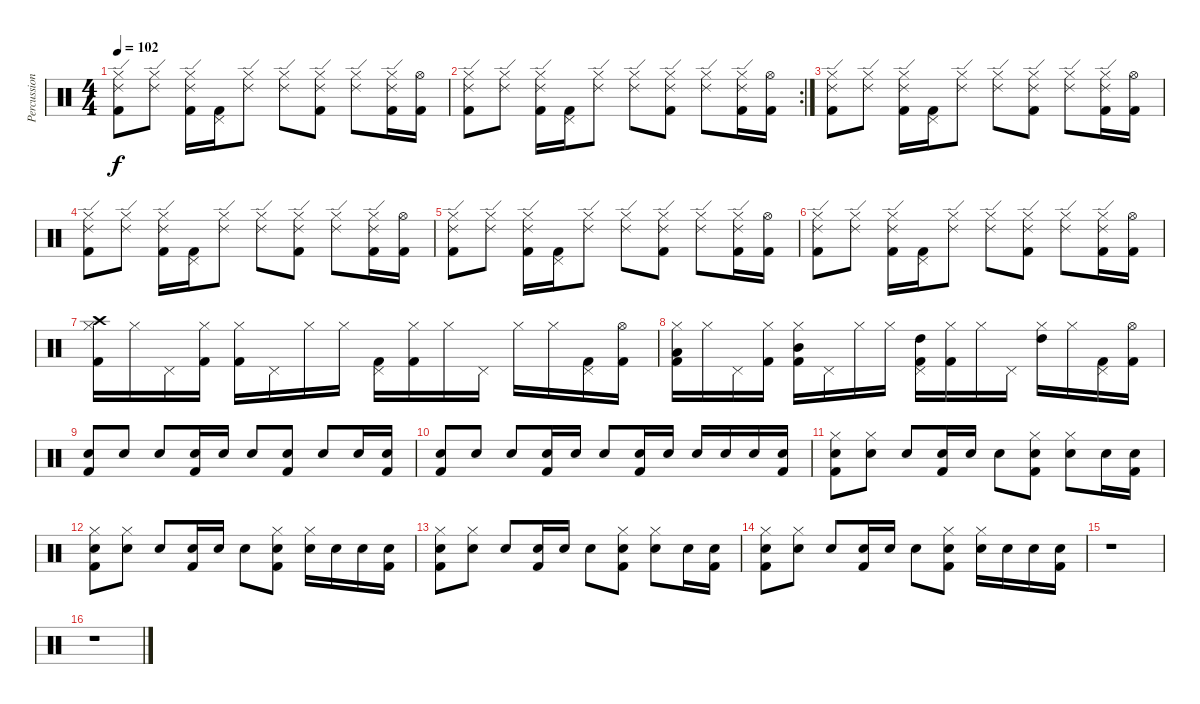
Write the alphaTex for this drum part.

\track ("Percussion" "Percussion") {instrument percussion}
\staff {score}
\articulation defaults
\ts (4 4)
\tempo 102
\clef neutral
\ks c
("Ride (edge) 2" "Hi-Hat (closed)" "Kick (hit) 2").8{dy f} ("Ride (edge) 2" "Hi-Hat (closed)").8 ("Ride (edge) 2" "Hi-Hat (closed)" "Kick (hit) 2").16 ("Pedal Hi-Hat (hit)" "Kick (hit) 2").16 ("Ride (edge) 2" "Hi-Hat (closed)").8 ("Ride (edge) 2" "Hi-Hat (closed)").8 ("Ride (edge) 2" "Hi-Hat (closed)" "Kick (hit) 2").8 ("Ride (edge) 2" "Hi-Hat (closed)").8 ("Ride (edge) 2" "Hi-Hat (closed)" "Kick (hit) 2").16 ("Hi-Hat (open)" "Kick (hit) 2").16 |
\rc 2
("Ride (edge) 2" "Hi-Hat (closed)" "Kick (hit) 2").8 ("Ride (edge) 2" "Hi-Hat (closed)").8 ("Ride (edge) 2" "Hi-Hat (closed)" "Kick (hit) 2").16 ("Pedal Hi-Hat (hit)" "Kick (hit) 2").16 ("Ride (edge) 2" "Hi-Hat (closed)").8 ("Ride (edge) 2" "Hi-Hat (closed)").8 ("Ride (edge) 2" "Hi-Hat (closed)" "Kick (hit) 2").8 ("Ride (edge) 2" "Hi-Hat (closed)").8 ("Ride (edge) 2" "Hi-Hat (closed)" "Kick (hit) 2").16 ("Hi-Hat (open)" "Kick (hit) 2").16 |
("Ride (edge) 2" "Hi-Hat (closed)" "Kick (hit) 2").8 ("Ride (edge) 2" "Hi-Hat (closed)").8 ("Ride (edge) 2" "Hi-Hat (closed)" "Kick (hit) 2").16 ("Pedal Hi-Hat (hit)" "Kick (hit) 2").16 ("Ride (edge) 2" "Hi-Hat (closed)").8 ("Ride (edge) 2" "Hi-Hat (closed)").8 ("Ride (edge) 2" "Hi-Hat (closed)" "Kick (hit) 2").8 ("Ride (edge) 2" "Hi-Hat (closed)").8 ("Ride (edge) 2" "Hi-Hat (closed)" "Kick (hit) 2").16 ("Hi-Hat (open)" "Kick (hit) 2").16 |
("Ride (edge) 2" "Hi-Hat (closed)" "Kick (hit) 2").8 ("Ride (edge) 2" "Hi-Hat (closed)").8 ("Ride (edge) 2" "Hi-Hat (closed)" "Kick (hit) 2").16 ("Pedal Hi-Hat (hit)" "Kick (hit) 2").16 ("Ride (edge) 2" "Hi-Hat (closed)").8 ("Ride (edge) 2" "Hi-Hat (closed)").8 ("Ride (edge) 2" "Hi-Hat (closed)" "Kick (hit) 2").8 ("Ride (edge) 2" "Hi-Hat (closed)").8 ("Ride (edge) 2" "Hi-Hat (closed)" "Kick (hit) 2").16 ("Hi-Hat (open)" "Kick (hit) 2").16 |
("Ride (edge) 2" "Hi-Hat (closed)" "Kick (hit) 2").8 ("Ride (edge) 2" "Hi-Hat (closed)").8 ("Ride (edge) 2" "Hi-Hat (closed)" "Kick (hit) 2").16 ("Pedal Hi-Hat (hit)" "Kick (hit) 2").16 ("Ride (edge) 2" "Hi-Hat (closed)").8 ("Ride (edge) 2" "Hi-Hat (closed)").8 ("Ride (edge) 2" "Hi-Hat (closed)" "Kick (hit) 2").8 ("Ride (edge) 2" "Hi-Hat (closed)").8 ("Ride (edge) 2" "Hi-Hat (closed)" "Kick (hit) 2").16 ("Hi-Hat (open)" "Kick (hit) 2").16 |
("Ride (edge) 2" "Hi-Hat (closed)" "Kick (hit) 2").8 ("Ride (edge) 2" "Hi-Hat (closed)").8 ("Ride (edge) 2" "Hi-Hat (closed)" "Kick (hit) 2").16 ("Pedal Hi-Hat (hit)" "Kick (hit) 2").16 ("Ride (edge) 2" "Hi-Hat (closed)").8 ("Ride (edge) 2" "Hi-Hat (closed)").8 ("Ride (edge) 2" "Hi-Hat (closed)" "Kick (hit) 2").8 ("Ride (edge) 2" "Hi-Hat (closed)").8 ("Ride (edge) 2" "Hi-Hat (closed)" "Kick (hit) 2").16 ("Hi-Hat (open)" "Kick (hit) 2").16 |
("Crash high (hit)" "Hi-Hat (closed)" "Kick (hit) 2").16 "Hi-Hat (closed)".16 "Pedal Hi-Hat (hit)".16 ("Hi-Hat (closed)" "Kick (hit) 2").16 ("Hi-Hat (closed)" "Kick (hit) 2").16 "Pedal Hi-Hat (hit)".16 "Hi-Hat (closed)".16 "Hi-Hat (closed)".16 ("Pedal Hi-Hat (hit)" "Kick (hit) 2").16 ("Hi-Hat (closed)" "Kick (hit) 2").16 "Hi-Hat (closed)".16 "Pedal Hi-Hat (hit)".16 "Hi-Hat (closed)".16 "Hi-Hat (closed)".16 ("Pedal Hi-Hat (hit)" "Kick (hit) 2").16 ("Hi-Hat (open)" "Kick (hit) 2").16 |
("Low Tom (hit)" "Hi-Hat (closed)" "Kick (hit) 2").16 "Hi-Hat (closed)".16 "Pedal Hi-Hat (hit)".16 ("Hi-Hat (closed)" "Kick (hit) 2").16 ("Mid Tom (hit)" "Hi-Hat (closed)" "Kick (hit) 2").16 "Pedal Hi-Hat (hit)".16 "Hi-Hat (closed)".16 "Hi-Hat (closed)".16 ("High Tom (hit)" "Pedal Hi-Hat (hit)" "Kick (hit) 2").16 ("Hi-Hat (closed)" "Kick (hit) 2").16 "Hi-Hat (closed)".16 "Pedal Hi-Hat (hit)".16 ("High Tom (hit)" "Hi-Hat (closed)").16 "Hi-Hat (closed)".16 ("Pedal Hi-Hat (hit)" "Kick (hit) 2").16 ("Hi-Hat (open)" "Kick (hit) 2").16 |
("Snare (hit) 2" "Kick (hit) 2").8 "Snare (hit) 2".8 "Snare (hit) 2".8 ("Snare (hit) 2" "Kick (hit) 2").16 "Snare (hit) 2".16 "Snare (hit) 2".8 ("Snare (hit) 2" "Kick (hit) 2").8 "Snare (hit) 2".8 "Snare (hit) 2".16 ("Snare (hit) 2" "Kick (hit) 2").16 |
("Snare (hit) 2" "Kick (hit) 2").8 "Snare (hit) 2".8 "Snare (hit) 2".8 ("Snare (hit) 2" "Kick (hit) 2").16 "Snare (hit) 2".16 "Snare (hit) 2".8 ("Snare (hit) 2" "Kick (hit) 2").16 "Snare (hit) 2".16 "Snare (hit) 2".16 "Snare (hit) 2".16 "Snare (hit) 2".16 ("Snare (hit) 2" "Kick (hit) 2").16 |
("Hi-Hat (closed)" "Snare (hit) 2" "Kick (hit) 2").8 ("Hi-Hat (closed)" "Snare (hit) 2").8 "Snare (hit) 2".8 ("Snare (hit) 2" "Kick (hit) 2").16 "Snare (hit) 2".16 "Snare (hit) 2".8 ("Hi-Hat (closed)" "Snare (hit) 2" "Kick (hit) 2").8 ("Hi-Hat (closed)" "Snare (hit) 2").8 "Snare (hit) 2".16 ("Snare (hit) 2" "Kick (hit) 2").16 |
("Hi-Hat (closed)" "Snare (hit) 2" "Kick (hit) 2").8 ("Hi-Hat (closed)" "Snare (hit) 2").8 "Snare (hit) 2".8 ("Snare (hit) 2" "Kick (hit) 2").16 "Snare (hit) 2".16 "Snare (hit) 2".8 ("Hi-Hat (closed)" "Snare (hit) 2" "Kick (hit) 2").8 ("Hi-Hat (closed)" "Snare (hit) 2").16 "Snare (hit) 2".16 "Snare (hit) 2".16 ("Snare (hit) 2" "Kick (hit) 2").16 |
("Hi-Hat (closed)" "Snare (hit) 2" "Kick (hit) 2").8 ("Hi-Hat (closed)" "Snare (hit) 2").8 "Snare (hit) 2".8 ("Snare (hit) 2" "Kick (hit) 2").16 "Snare (hit) 2".16 "Snare (hit) 2".8 ("Hi-Hat (closed)" "Snare (hit) 2" "Kick (hit) 2").8 ("Hi-Hat (closed)" "Snare (hit) 2").8 "Snare (hit) 2".16 ("Snare (hit) 2" "Kick (hit) 2").16 |
("Hi-Hat (closed)" "Snare (hit) 2" "Kick (hit) 2").8 ("Hi-Hat (closed)" "Snare (hit) 2").8 "Snare (hit) 2".8 ("Snare (hit) 2" "Kick (hit) 2").16 "Snare (hit) 2".16 "Snare (hit) 2".8 ("Hi-Hat (closed)" "Snare (hit) 2" "Kick (hit) 2").8 ("Hi-Hat (closed)" "Snare (hit) 2").16 "Snare (hit) 2".16 "Snare (hit) 2".16 ("Snare (hit) 2" "Kick (hit) 2").16 |
r.1 |
r.1
